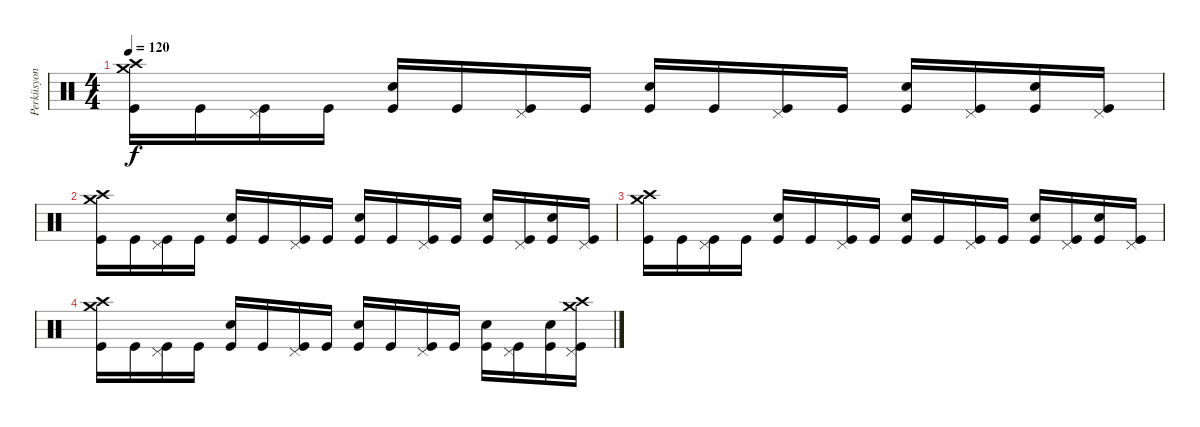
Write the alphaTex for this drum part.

\track ("Perküsyon" "Perküsyon") {instrument percussion}
\staff {score}
\articulation defaults
\ts (4 4)
\tempo 120
\clef neutral
\ks c
("Crash high (hit)" "Crash medium (hit)" "Kick (hit)").16{dy f} "Kick (hit)".16 ("Pedal Hi-Hat (hit)" "Kick (hit)").16 "Kick (hit)".16 ("Snare (hit) 2" "Kick (hit)").16 "Kick (hit)".16 ("Pedal Hi-Hat (hit)" "Kick (hit)").16 "Kick (hit)".16 ("Electric Snare (hit)" "Kick (hit)").16 "Kick (hit)".16 ("Pedal Hi-Hat (hit)" "Kick (hit)").16 "Kick (hit)".16 ("Snare (hit) 2" "Kick (hit)").16 ("Pedal Hi-Hat (hit)" "Kick (hit)").16 ("Electric Snare (hit)" "Kick (hit)").16 ("Pedal Hi-Hat (hit)" "Kick (hit)").16 |
("Crash high (hit)" "Crash medium (hit)" "Kick (hit)").16 "Kick (hit)".16 ("Pedal Hi-Hat (hit)" "Kick (hit)").16 "Kick (hit)".16 ("Snare (hit) 2" "Kick (hit)").16 "Kick (hit)".16 ("Pedal Hi-Hat (hit)" "Kick (hit)").16 "Kick (hit)".16 ("Electric Snare (hit)" "Kick (hit)").16 "Kick (hit)".16 ("Pedal Hi-Hat (hit)" "Kick (hit)").16 "Kick (hit)".16 ("Snare (hit) 2" "Kick (hit)").16 ("Pedal Hi-Hat (hit)" "Kick (hit)").16 ("Electric Snare (hit)" "Kick (hit)").16 ("Pedal Hi-Hat (hit)" "Kick (hit)").16 |
("Crash high (hit)" "Crash medium (hit)" "Kick (hit)").16 "Kick (hit)".16 ("Pedal Hi-Hat (hit)" "Kick (hit)").16 "Kick (hit)".16 ("Snare (hit) 2" "Kick (hit)").16 "Kick (hit)".16 ("Pedal Hi-Hat (hit)" "Kick (hit)").16 "Kick (hit)".16 ("Electric Snare (hit)" "Kick (hit)").16 "Kick (hit)".16 ("Pedal Hi-Hat (hit)" "Kick (hit)").16 "Kick (hit)".16 ("Snare (hit) 2" "Kick (hit)").16 ("Pedal Hi-Hat (hit)" "Kick (hit)").16 ("Electric Snare (hit)" "Kick (hit)").16 ("Pedal Hi-Hat (hit)" "Kick (hit)").16 |
("Crash high (hit)" "Crash medium (hit)" "Kick (hit)").16 "Kick (hit)".16 ("Pedal Hi-Hat (hit)" "Kick (hit)").16 "Kick (hit)".16 ("Snare (hit) 2" "Kick (hit)").16 "Kick (hit)".16 ("Pedal Hi-Hat (hit)" "Kick (hit)").16 "Kick (hit)".16 ("Electric Snare (hit)" "Kick (hit)").16 "Kick (hit)".16 ("Pedal Hi-Hat (hit)" "Kick (hit)").16 "Kick (hit)".16 ("Snare (hit) 2" "Kick (hit)").16 ("Pedal Hi-Hat (hit)" "Kick (hit)").16 ("Electric Snare (hit)" "Kick (hit)").16 ("Crash medium (hit)" "Crash high (hit)" "Pedal Hi-Hat (hit)" "Kick (hit)").16
